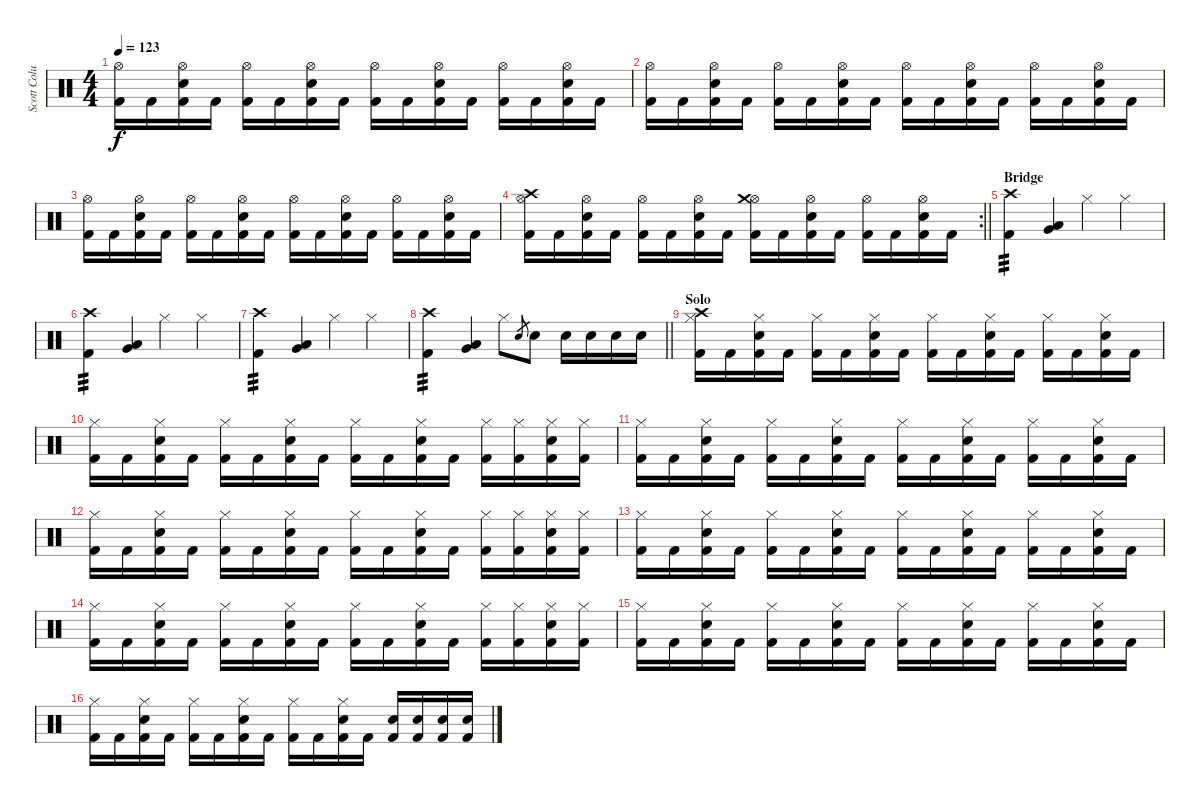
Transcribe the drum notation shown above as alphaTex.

\track ("Scott Columbus" "Scott Colu") {instrument percussion}
\staff {score}
\articulation defaults
\ts (4 4)
\tempo 123
\clef neutral
\ks c
("Kick (hit) 2" "Hi-Hat (open)").16{dy f} "Kick (hit) 2".16 ("Kick (hit) 2" "Electric Snare (hit)" "Hi-Hat (open)").16 "Kick (hit) 2".16 ("Kick (hit) 2" "Hi-Hat (open)").16 "Kick (hit) 2".16 ("Kick (hit) 2" "Electric Snare (hit)" "Hi-Hat (open)").16 "Kick (hit) 2".16 ("Kick (hit) 2" "Hi-Hat (open)").16 "Kick (hit) 2".16 ("Kick (hit) 2" "Electric Snare (hit)" "Hi-Hat (open)").16 "Kick (hit) 2".16 ("Kick (hit) 2" "Hi-Hat (open)").16 "Kick (hit) 2".16 ("Kick (hit) 2" "Electric Snare (hit)" "Hi-Hat (open)").16 "Kick (hit) 2".16 |
("Kick (hit) 2" "Hi-Hat (open)").16 "Kick (hit) 2".16 ("Kick (hit) 2" "Electric Snare (hit)" "Hi-Hat (open)").16 "Kick (hit) 2".16 ("Kick (hit) 2" "Hi-Hat (open)").16 "Kick (hit) 2".16 ("Kick (hit) 2" "Electric Snare (hit)" "Hi-Hat (open)").16 "Kick (hit) 2".16 ("Kick (hit) 2" "Hi-Hat (open)").16 "Kick (hit) 2".16 ("Kick (hit) 2" "Electric Snare (hit)" "Hi-Hat (open)").16 "Kick (hit) 2".16 ("Kick (hit) 2" "Hi-Hat (open)").16 "Kick (hit) 2".16 ("Kick (hit) 2" "Electric Snare (hit)" "Hi-Hat (open)").16 "Kick (hit) 2".16 |
("Kick (hit) 2" "Hi-Hat (open)").16 "Kick (hit) 2".16 ("Kick (hit) 2" "Electric Snare (hit)" "Hi-Hat (open)").16 "Kick (hit) 2".16 ("Kick (hit) 2" "Hi-Hat (open)").16 "Kick (hit) 2".16 ("Kick (hit) 2" "Electric Snare (hit)" "Hi-Hat (open)").16 "Kick (hit) 2".16 ("Kick (hit) 2" "Hi-Hat (open)").16 "Kick (hit) 2".16 ("Kick (hit) 2" "Electric Snare (hit)" "Hi-Hat (open)").16 "Kick (hit) 2".16 ("Kick (hit) 2" "Hi-Hat (open)").16 "Kick (hit) 2".16 ("Kick (hit) 2" "Electric Snare (hit)" "Hi-Hat (open)").16 "Kick (hit) 2".16 |
\rc 2
\barLineRight lightlight
("Kick (hit) 2" "Hi-Hat (open)" "Crash high (hit)").16 "Kick (hit) 2".16 ("Kick (hit) 2" "Electric Snare (hit)" "Hi-Hat (open)").16 "Kick (hit) 2".16 ("Kick (hit) 2" "Hi-Hat (open)").16 "Kick (hit) 2".16 ("Kick (hit) 2" "Electric Snare (hit)" "Hi-Hat (open)").16 "Kick (hit) 2".16 ("Kick (hit) 2" "Hi-Hat (open)" "Crash medium (hit)").16 "Kick (hit) 2".16 ("Kick (hit) 2" "Electric Snare (hit)" "Hi-Hat (open)").16 "Kick (hit) 2".16 ("Kick (hit) 2" "Hi-Hat (open)").16 "Kick (hit) 2".16 ("Kick (hit) 2" "Electric Snare (hit)" "Hi-Hat (open)").16 "Kick (hit) 2".16 |
\section ("" "Bridge")
("Kick (hit) 2" "Crash high (hit)").4{tp 3} ("Very Low Tom (hit)" "Low Tom (hit)").4 "Hi-Hat (closed)".4 "Hi-Hat (closed)".4 |
("Kick (hit) 2" "Crash high (hit)").4{tp 3} ("Very Low Tom (hit)" "Low Tom (hit)").4 "Hi-Hat (closed)".4 "Hi-Hat (closed)".4 |
("Kick (hit) 2" "Crash high (hit)").4{tp 3} ("Very Low Tom (hit)" "Low Tom (hit)").4 "Hi-Hat (closed)".4 "Hi-Hat (closed)".4 |
\barLineRight lightlight
("Kick (hit) 2" "Crash high (hit)").4{tp 3} ("Very Low Tom (hit)" "Low Tom (hit)").4 "Hi-Hat (closed)".8 "Electric Snare (hit)".8{gr} "Electric Snare (hit)".8 "Electric Snare (hit)".16 "Electric Snare (hit)".16 "Electric Snare (hit)".16 "Electric Snare (hit)".16 |
\section ("" "Solo")
("Kick (hit) 2" "Hi-Hat (closed)" "Crash high (hit)").16 "Kick (hit) 2".16 ("Kick (hit) 2" "Electric Snare (hit)" "Hi-Hat (closed)").16 "Kick (hit) 2".16 ("Kick (hit) 2" "Hi-Hat (closed)").16 "Kick (hit) 2".16 ("Kick (hit) 2" "Electric Snare (hit)" "Hi-Hat (closed)").16 "Kick (hit) 2".16 ("Kick (hit) 2" "Hi-Hat (closed)").16 "Kick (hit) 2".16 ("Kick (hit) 2" "Electric Snare (hit)" "Hi-Hat (closed)").16 "Kick (hit) 2".16 ("Kick (hit) 2" "Hi-Hat (closed)").16 "Kick (hit) 2".16 ("Kick (hit) 2" "Electric Snare (hit)" "Hi-Hat (closed)").16 "Kick (hit) 2".16 |
("Kick (hit) 2" "Hi-Hat (closed)").16 "Kick (hit) 2".16 ("Kick (hit) 2" "Electric Snare (hit)" "Hi-Hat (closed)").16 "Kick (hit) 2".16 ("Kick (hit) 2" "Hi-Hat (closed)").16 "Kick (hit) 2".16 ("Kick (hit) 2" "Electric Snare (hit)" "Hi-Hat (closed)").16 "Kick (hit) 2".16 ("Kick (hit) 2" "Hi-Hat (closed)").16 "Kick (hit) 2".16 ("Kick (hit) 2" "Electric Snare (hit)" "Hi-Hat (closed)").16 "Kick (hit) 2".16 ("Kick (hit) 2" "Hi-Hat (closed)").16 ("Kick (hit) 2" "Hi-Hat (closed)").16 ("Kick (hit) 2" "Electric Snare (hit)" "Hi-Hat (closed)").16 ("Kick (hit) 2" "Hi-Hat (closed)").16 |
("Kick (hit) 2" "Hi-Hat (closed)").16 "Kick (hit) 2".16 ("Kick (hit) 2" "Electric Snare (hit)" "Hi-Hat (closed)").16 "Kick (hit) 2".16 ("Kick (hit) 2" "Hi-Hat (closed)").16 "Kick (hit) 2".16 ("Kick (hit) 2" "Electric Snare (hit)" "Hi-Hat (closed)").16 "Kick (hit) 2".16 ("Kick (hit) 2" "Hi-Hat (closed)").16 "Kick (hit) 2".16 ("Kick (hit) 2" "Electric Snare (hit)" "Hi-Hat (closed)").16 "Kick (hit) 2".16 ("Kick (hit) 2" "Hi-Hat (closed)").16 "Kick (hit) 2".16 ("Kick (hit) 2" "Electric Snare (hit)" "Hi-Hat (closed)").16 "Kick (hit) 2".16 |
("Kick (hit) 2" "Hi-Hat (closed)").16 "Kick (hit) 2".16 ("Kick (hit) 2" "Electric Snare (hit)" "Hi-Hat (closed)").16 "Kick (hit) 2".16 ("Kick (hit) 2" "Hi-Hat (closed)").16 "Kick (hit) 2".16 ("Kick (hit) 2" "Electric Snare (hit)" "Hi-Hat (closed)").16 "Kick (hit) 2".16 ("Kick (hit) 2" "Hi-Hat (closed)").16 "Kick (hit) 2".16 ("Kick (hit) 2" "Electric Snare (hit)" "Hi-Hat (closed)").16 "Kick (hit) 2".16 ("Kick (hit) 2" "Hi-Hat (closed)").16 ("Kick (hit) 2" "Hi-Hat (closed)").16 ("Kick (hit) 2" "Electric Snare (hit)" "Hi-Hat (closed)").16 ("Kick (hit) 2" "Hi-Hat (closed)").16 |
("Kick (hit) 2" "Hi-Hat (closed)").16 "Kick (hit) 2".16 ("Kick (hit) 2" "Electric Snare (hit)" "Hi-Hat (closed)").16 "Kick (hit) 2".16 ("Kick (hit) 2" "Hi-Hat (closed)").16 "Kick (hit) 2".16 ("Kick (hit) 2" "Electric Snare (hit)" "Hi-Hat (closed)").16 "Kick (hit) 2".16 ("Kick (hit) 2" "Hi-Hat (closed)").16 "Kick (hit) 2".16 ("Kick (hit) 2" "Electric Snare (hit)" "Hi-Hat (closed)").16 "Kick (hit) 2".16 ("Kick (hit) 2" "Hi-Hat (closed)").16 "Kick (hit) 2".16 ("Kick (hit) 2" "Electric Snare (hit)" "Hi-Hat (closed)").16 "Kick (hit) 2".16 |
("Kick (hit) 2" "Hi-Hat (closed)").16 "Kick (hit) 2".16 ("Kick (hit) 2" "Electric Snare (hit)" "Hi-Hat (closed)").16 "Kick (hit) 2".16 ("Kick (hit) 2" "Hi-Hat (closed)").16 "Kick (hit) 2".16 ("Kick (hit) 2" "Electric Snare (hit)" "Hi-Hat (closed)").16 "Kick (hit) 2".16 ("Kick (hit) 2" "Hi-Hat (closed)").16 "Kick (hit) 2".16 ("Kick (hit) 2" "Electric Snare (hit)" "Hi-Hat (closed)").16 "Kick (hit) 2".16 ("Kick (hit) 2" "Hi-Hat (closed)").16 ("Kick (hit) 2" "Hi-Hat (closed)").16 ("Kick (hit) 2" "Electric Snare (hit)" "Hi-Hat (closed)").16 ("Kick (hit) 2" "Hi-Hat (closed)").16 |
("Kick (hit) 2" "Hi-Hat (closed)").16 "Kick (hit) 2".16 ("Kick (hit) 2" "Electric Snare (hit)" "Hi-Hat (closed)").16 "Kick (hit) 2".16 ("Kick (hit) 2" "Hi-Hat (closed)").16 "Kick (hit) 2".16 ("Kick (hit) 2" "Electric Snare (hit)" "Hi-Hat (closed)").16 "Kick (hit) 2".16 ("Kick (hit) 2" "Hi-Hat (closed)").16 "Kick (hit) 2".16 ("Kick (hit) 2" "Electric Snare (hit)" "Hi-Hat (closed)").16 "Kick (hit) 2".16 ("Kick (hit) 2" "Hi-Hat (closed)").16 "Kick (hit) 2".16 ("Kick (hit) 2" "Electric Snare (hit)" "Hi-Hat (closed)").16 "Kick (hit) 2".16 |
("Kick (hit) 2" "Hi-Hat (closed)").16 "Kick (hit) 2".16 ("Kick (hit) 2" "Electric Snare (hit)" "Hi-Hat (closed)").16 "Kick (hit) 2".16 ("Kick (hit) 2" "Hi-Hat (closed)").16 "Kick (hit) 2".16 ("Kick (hit) 2" "Electric Snare (hit)" "Hi-Hat (closed)").16 "Kick (hit) 2".16 ("Kick (hit) 2" "Hi-Hat (closed)").16 "Kick (hit) 2".16 ("Kick (hit) 2" "Electric Snare (hit)" "Hi-Hat (closed)").16 "Kick (hit) 2".16 ("Kick (hit) 2" "Electric Snare (hit)").16 ("Kick (hit) 2" "Electric Snare (hit)").16 ("Kick (hit) 2" "Electric Snare (hit)").16 ("Kick (hit) 2" "Electric Snare (hit)").16
